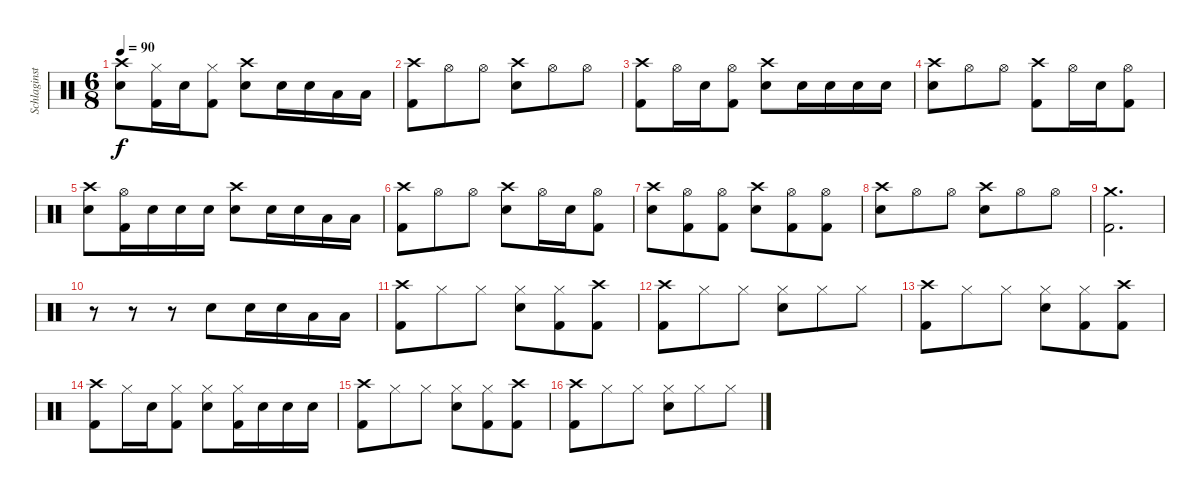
\track ("Schlaginstrumente - Auswahl" "Schlaginst") {instrument percussion}
\staff {score}
\articulation defaults
\ts (6 8)
\tempo 90
\clef neutral
\ks c
("Crash high (hit)" "Snare (hit) 2").8{dy f} ("Hi-Hat (closed)" "Kick (hit) 2").16 "Snare (hit) 2".16 ("Hi-Hat (closed)" "Kick (hit) 2").8 ("Crash high (hit)" "Snare (hit) 2").8 "Snare (hit) 2".16 "Snare (hit) 2".16 "Low Tom (hit)".16 "Low Tom (hit)".16 |
("Crash high (hit)" "Kick (hit) 2").8 "Hi-Hat (open)".8 "Hi-Hat (open)".8 ("Crash high (hit)" "Snare (hit) 2").8 "Hi-Hat (open)".8 "Hi-Hat (open)".8 |
("Crash high (hit)" "Kick (hit) 2").8 "Hi-Hat (open)".16 "Snare (hit) 2".16 ("Hi-Hat (open)" "Kick (hit) 2").8 ("Crash high (hit)" "Snare (hit) 2").8 "Snare (hit) 2".16 "Snare (hit) 2".16 "Snare (hit) 2".16 "Snare (hit) 2".16 |
("Crash high (hit)" "Snare (hit) 2").8 "Hi-Hat (open)".8 "Hi-Hat (open)".8 ("Crash high (hit)" "Kick (hit) 2").8 "Hi-Hat (open)".16 "Snare (hit) 2".16 ("Hi-Hat (open)" "Kick (hit) 2").8 |
("Crash high (hit)" "Snare (hit) 2").8 ("Hi-Hat (open)" "Kick (hit) 2").16 "Snare (hit) 2".16 "Snare (hit) 2".16 "Snare (hit) 2".16 ("Crash high (hit)" "Snare (hit) 2").8 "Snare (hit) 2".16 "Snare (hit) 2".16 "Low Tom (hit)".16 "Low Tom (hit)".16 |
("Crash high (hit)" "Kick (hit) 2").8 "Hi-Hat (open)".8 "Hi-Hat (open)".8 ("Crash high (hit)" "Snare (hit) 2").8 "Hi-Hat (open)".16 "Snare (hit) 2".16 ("Hi-Hat (open)" "Kick (hit) 2").8 |
("Crash high (hit)" "Snare (hit) 2").8 ("Hi-Hat (open)" "Kick (hit) 2").8 ("Hi-Hat (open)" "Kick (hit) 2").8 ("Crash high (hit)" "Snare (hit) 2").8 ("Hi-Hat (open)" "Kick (hit) 2").8 ("Hi-Hat (open)" "Kick (hit) 2").8 |
("Crash high (hit)" "Snare (hit) 2").8 "Hi-Hat (open)".8 "Hi-Hat (open)".8 ("Crash high (hit)" "Snare (hit) 2").8 "Hi-Hat (open)".8 "Hi-Hat (open)".8 |
("Crash medium (hit)" "Kick (hit) 2").2{d} |
r.8 r.8 r.8 "Snare (hit) 2".8 "Snare (hit) 2".16 "Snare (hit) 2".16 "Low Tom (hit)".16 "Low Tom (hit)".16 |
("Crash high (hit)" "Kick (hit) 2").8 "Hi-Hat (closed)".8 "Hi-Hat (closed)".8 ("Hi-Hat (closed)" "Snare (hit) 2").8 ("Hi-Hat (closed)" "Kick (hit) 2").8 ("Crash high (hit)" "Kick (hit) 2").8 |
("Crash high (hit)" "Kick (hit) 2").8 "Hi-Hat (closed)".8 "Hi-Hat (closed)".8 ("Hi-Hat (closed)" "Snare (hit) 2").8 "Hi-Hat (closed)".8 "Hi-Hat (closed)".8 |
("Crash high (hit)" "Kick (hit) 2").8 "Hi-Hat (closed)".8 "Hi-Hat (closed)".8 ("Hi-Hat (closed)" "Snare (hit) 2").8 ("Hi-Hat (closed)" "Kick (hit) 2").8 ("Crash high (hit)" "Kick (hit) 2").8 |
("Crash high (hit)" "Kick (hit) 2").8 "Hi-Hat (closed)".16 "Snare (hit) 2".16 ("Hi-Hat (closed)" "Kick (hit) 2").8 ("Hi-Hat (closed)" "Snare (hit) 2").8 ("Hi-Hat (closed)" "Kick (hit) 2").16 "Snare (hit) 2".16 "Snare (hit) 2".16 "Snare (hit) 2".16 |
("Crash high (hit)" "Kick (hit) 2").8 "Hi-Hat (closed)".8 "Hi-Hat (closed)".8 ("Hi-Hat (closed)" "Snare (hit) 2").8 ("Hi-Hat (closed)" "Kick (hit) 2").8 ("Crash high (hit)" "Kick (hit) 2").8 |
("Crash high (hit)" "Kick (hit) 2").8 "Hi-Hat (closed)".8 "Hi-Hat (closed)".8 ("Hi-Hat (closed)" "Snare (hit) 2").8 "Hi-Hat (closed)".8 "Hi-Hat (closed)".8
